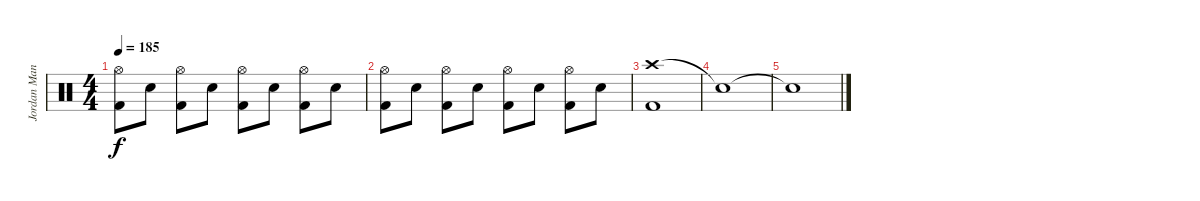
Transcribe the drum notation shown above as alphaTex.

\track ("Jordan Mancino" "Jordan Man") {instrument percussion}
\staff {score}
\articulation defaults
\ts (4 4)
\tempo 185
\clef neutral
\ks c
("Hi-Hat (open)" "Kick (hit) 2").8{dy f} "Electric Snare (hit)".8 ("Hi-Hat (open)" "Kick (hit) 2").8 "Electric Snare (hit)".8 ("Hi-Hat (open)" "Kick (hit) 2").8 "Electric Snare (hit)".8 ("Hi-Hat (open)" "Kick (hit) 2").8 "Electric Snare (hit)".8 |
("Hi-Hat (open)" "Kick (hit) 2").8 "Electric Snare (hit)".8 ("Hi-Hat (open)" "Kick (hit) 2").8 "Electric Snare (hit)".8 ("Hi-Hat (open)" "Kick (hit) 2").8 "Electric Snare (hit)".8 ("Hi-Hat (open)" "Kick (hit) 2").8 "Electric Snare (hit)".8 |
("Crash high (hit)" "Kick (hit) 2").1 |
"Snare (hit)"{t}.1 |
"Snare (hit)"{t}.1
